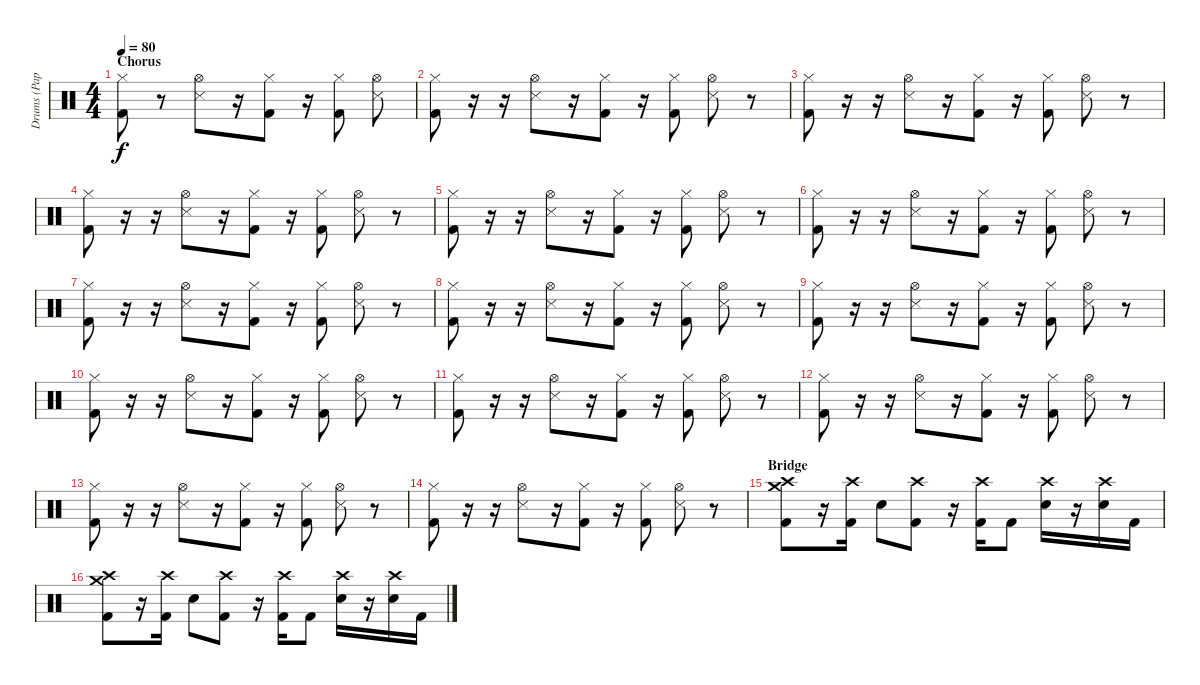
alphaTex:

\track ("Drums (Pappas)" "Drums (Pap") {instrument percussion}
\staff {score}
\articulation defaults
\ts (4 4)
\section ("" "Chorus")
\tempo 80
\clef neutral
\ks c
("Hi-Hat (closed)" "Kick (hit) 2").8{dy f} r.8 ("Hi-Hat (open)" "Snare (side stick) 3").8 r.16 ("Hi-Hat (closed)" "Kick (hit) 2").8 r.16 ("Hi-Hat (closed)" "Kick (hit) 2").8 ("Hi-Hat (open)" "Snare (side stick) 3").8 |
("Hi-Hat (closed)" "Kick (hit) 2").8 r.16 r.16 ("Hi-Hat (open)" "Snare (side stick) 3").8 r.16 ("Hi-Hat (closed)" "Kick (hit) 2").8 r.16 ("Hi-Hat (closed)" "Kick (hit) 2").8 ("Hi-Hat (open)" "Snare (side stick) 3").8 r.8 |
("Hi-Hat (closed)" "Kick (hit) 2").8 r.16 r.16 ("Hi-Hat (open)" "Snare (side stick) 3").8 r.16 ("Hi-Hat (closed)" "Kick (hit) 2").8 r.16 ("Hi-Hat (closed)" "Kick (hit) 2").8 ("Hi-Hat (open)" "Snare (side stick) 3").8 r.8 |
("Hi-Hat (closed)" "Kick (hit) 2").8 r.16 r.16 ("Hi-Hat (open)" "Snare (side stick) 3").8 r.16 ("Hi-Hat (closed)" "Kick (hit) 2").8 r.16 ("Hi-Hat (closed)" "Kick (hit) 2").8 ("Hi-Hat (open)" "Snare (side stick) 3").8 r.8 |
("Hi-Hat (closed)" "Kick (hit) 2").8 r.16 r.16 ("Hi-Hat (open)" "Snare (side stick) 3").8 r.16 ("Hi-Hat (closed)" "Kick (hit) 2").8 r.16 ("Hi-Hat (closed)" "Kick (hit) 2").8 ("Hi-Hat (open)" "Snare (side stick) 3").8 r.8 |
("Hi-Hat (closed)" "Kick (hit) 2").8 r.16 r.16 ("Hi-Hat (open)" "Snare (side stick) 3").8 r.16 ("Hi-Hat (closed)" "Kick (hit) 2").8 r.16 ("Hi-Hat (closed)" "Kick (hit) 2").8 ("Hi-Hat (open)" "Snare (side stick) 3").8 r.8 |
("Hi-Hat (closed)" "Kick (hit) 2").8 r.16 r.16 ("Hi-Hat (open)" "Snare (side stick) 3").8 r.16 ("Hi-Hat (closed)" "Kick (hit) 2").8 r.16 ("Hi-Hat (closed)" "Kick (hit) 2").8 ("Hi-Hat (open)" "Snare (side stick) 3").8 r.8 |
("Hi-Hat (closed)" "Kick (hit) 2").8 r.16 r.16 ("Hi-Hat (open)" "Snare (side stick) 3").8 r.16 ("Hi-Hat (closed)" "Kick (hit) 2").8 r.16 ("Hi-Hat (closed)" "Kick (hit) 2").8 ("Hi-Hat (open)" "Snare (side stick) 3").8 r.8 |
("Hi-Hat (closed)" "Kick (hit) 2").8 r.16 r.16 ("Hi-Hat (open)" "Snare (side stick) 3").8 r.16 ("Hi-Hat (closed)" "Kick (hit) 2").8 r.16 ("Hi-Hat (closed)" "Kick (hit) 2").8 ("Hi-Hat (open)" "Snare (side stick) 3").8 r.8 |
("Hi-Hat (closed)" "Kick (hit) 2").8 r.16 r.16 ("Hi-Hat (open)" "Snare (side stick) 3").8 r.16 ("Hi-Hat (closed)" "Kick (hit) 2").8 r.16 ("Hi-Hat (closed)" "Kick (hit) 2").8 ("Hi-Hat (open)" "Snare (side stick) 3").8 r.8 |
("Hi-Hat (closed)" "Kick (hit) 2").8 r.16 r.16 ("Hi-Hat (open)" "Snare (side stick) 3").8 r.16 ("Hi-Hat (closed)" "Kick (hit) 2").8 r.16 ("Hi-Hat (closed)" "Kick (hit) 2").8 ("Hi-Hat (open)" "Snare (side stick) 3").8 r.8 |
("Hi-Hat (closed)" "Kick (hit) 2").8 r.16 r.16 ("Hi-Hat (open)" "Snare (side stick) 3").8 r.16 ("Hi-Hat (closed)" "Kick (hit) 2").8 r.16 ("Hi-Hat (closed)" "Kick (hit) 2").8 ("Hi-Hat (open)" "Snare (side stick) 3").8 r.8 |
("Hi-Hat (closed)" "Kick (hit) 2").8 r.16 r.16 ("Hi-Hat (open)" "Snare (side stick) 3").8 r.16 ("Hi-Hat (closed)" "Kick (hit) 2").8 r.16 ("Hi-Hat (closed)" "Kick (hit) 2").8 ("Hi-Hat (open)" "Snare (side stick) 3").8 r.8 |
("Hi-Hat (closed)" "Kick (hit) 2").8 r.16 r.16 ("Hi-Hat (open)" "Snare (side stick) 3").8 r.16 ("Hi-Hat (closed)" "Kick (hit) 2").8 r.16 ("Hi-Hat (closed)" "Kick (hit) 2").8 ("Hi-Hat (open)" "Snare (side stick) 3").8 r.8 |
\section ("" "Bridge")
("Crash medium (hit)" "Crash high (hit)" "Kick (hit) 2").8 r.16 ("Crash high (hit)" "Kick (hit) 2").16 "Electric Snare (hit)".8 ("Crash high (hit)" "Kick (hit) 2").8 r.16 ("Crash high (hit)" "Kick (hit) 2").16 "Kick (hit) 2".8 ("Crash high (hit)" "Electric Snare (hit)").16 r.16 ("Crash high (hit)" "Electric Snare (hit)").16 "Kick (hit) 2".16 |
("Crash medium (hit)" "Crash high (hit)" "Kick (hit) 2").8 r.16 ("Crash high (hit)" "Kick (hit) 2").16 "Electric Snare (hit)".8 ("Crash high (hit)" "Kick (hit) 2").8 r.16 ("Crash high (hit)" "Kick (hit) 2").16 "Kick (hit) 2".8 ("Crash high (hit)" "Electric Snare (hit)").16 r.16 ("Crash high (hit)" "Electric Snare (hit)").16 "Kick (hit) 2".16
